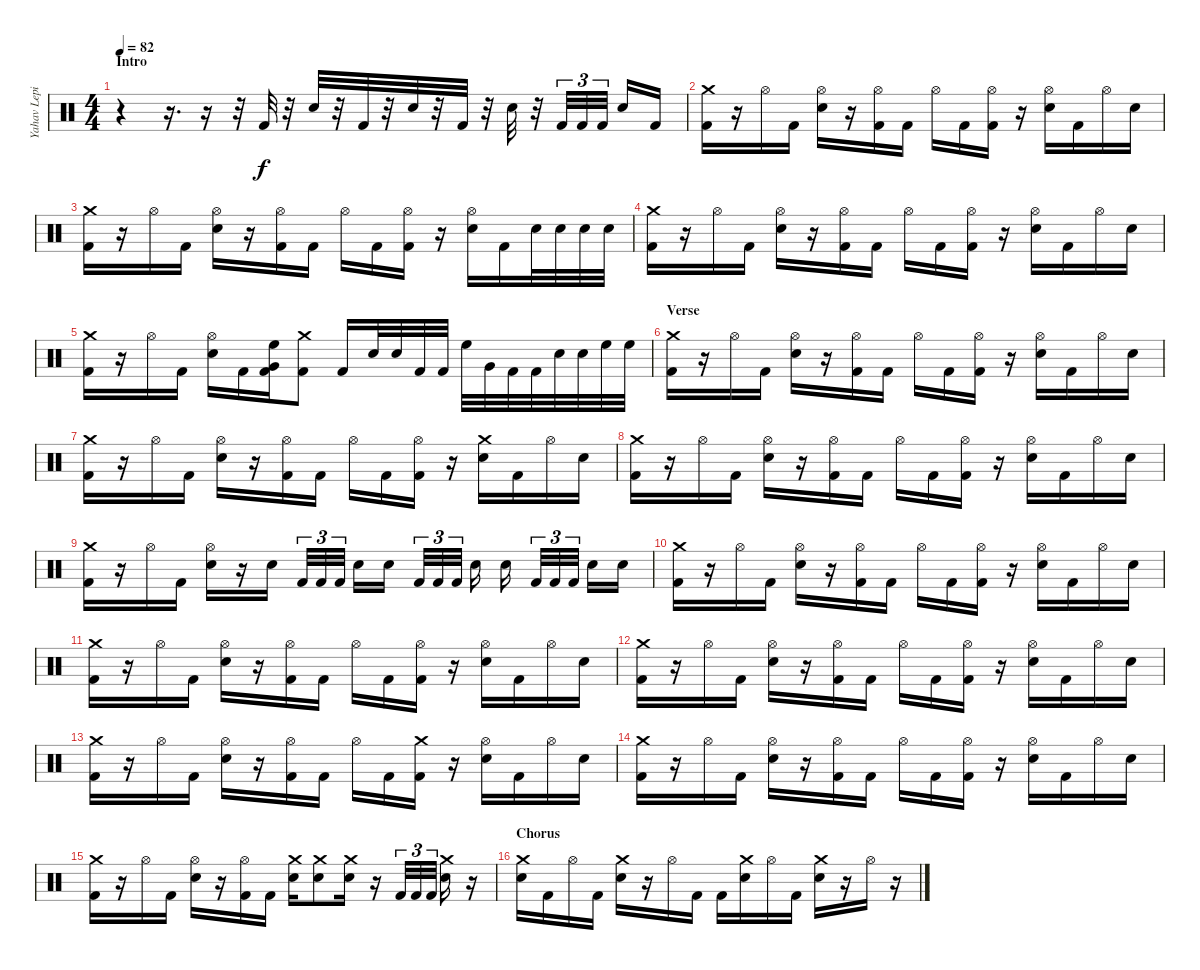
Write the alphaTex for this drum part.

\track ("Yahav Lepinsky" "Yahav Lepi") {instrument percussion}
\staff {score}
\articulation defaults
\ts (4 4)
\section ("" "Intro")
\tempo 82
\clef neutral
\ks c
r.4{dy f} r.16{d} r.16 r.32 "Kick (hit) 2".32 r.32 "Electric Snare (hit)".32 r.32 "Kick (hit) 2".32 r.32 "Electric Snare (hit)".32 r.32 "Kick (hit) 2".32 r.32 "Electric Snare (hit)".32 r.32 "Kick (hit) 2".32{tu (3 2)} "Kick (hit) 2".32{tu (3 2)} "Kick (hit) 2".32{tu (3 2)} "Electric Snare (hit)".16 "Kick (hit) 2".16 |
("Crash medium (hit)" "Kick (hit) 2").16 r.16 "Hi-Hat (open)".16 "Kick (hit) 2".16 ("Hi-Hat (open)" "Electric Snare (hit)").16 r.16 ("Hi-Hat (open)" "Kick (hit) 2").16 "Kick (hit) 2".16 "Hi-Hat (open)".16 "Kick (hit) 2".16 ("Hi-Hat (open)" "Kick (hit) 2").16 r.16 ("Hi-Hat (open)" "Electric Snare (hit)").16 "Kick (hit) 2".16 "Hi-Hat (open)".16 "Electric Snare (hit)".16 |
("Crash medium (hit)" "Kick (hit) 2").16 r.16 "Hi-Hat (open)".16 "Kick (hit) 2".16 ("Hi-Hat (open)" "Electric Snare (hit)").16 r.16 ("Hi-Hat (open)" "Kick (hit) 2").16 "Kick (hit) 2".16 "Hi-Hat (open)".16 "Kick (hit) 2".16 ("Hi-Hat (open)" "Kick (hit) 2").16 r.16 ("Hi-Hat (open)" "Electric Snare (hit)").16 "Kick (hit) 2".16 "Electric Snare (hit)".32 "Electric Snare (hit)".32 "Electric Snare (hit)".32 "Electric Snare (hit)".32 |
("Crash medium (hit)" "Kick (hit) 2").16 r.16 "Hi-Hat (open)".16 "Kick (hit) 2".16 ("Hi-Hat (open)" "Electric Snare (hit)").16 r.16 ("Hi-Hat (open)" "Kick (hit) 2").16 "Kick (hit) 2".16 "Hi-Hat (open)".16 "Kick (hit) 2".16 ("Hi-Hat (open)" "Kick (hit) 2").16 r.16 ("Hi-Hat (open)" "Electric Snare (hit)").16 "Kick (hit) 2".16 "Hi-Hat (open)".16 "Electric Snare (hit)".16 |
("Crash medium (hit)" "Kick (hit) 2").16 r.16 "Hi-Hat (open)".16 "Kick (hit) 2".16 ("Hi-Hat (open)" "Electric Snare (hit)").16 "Kick (hit) 2".16 ("High Floor Tom (hit)" "Very Low Tom (hit)" "Kick (hit) 2").16 ("Crash medium (hit)" "Kick (hit) 2").8 "Kick (hit) 2".16 "Electric Snare (hit)".32 "Electric Snare (hit)".32 "Kick (hit) 2".32 "Kick (hit) 2".32 "High Floor Tom (hit)".32 "Very Low Tom (hit)".32 "Kick (hit) 2".32 "Kick (hit) 2".32 "Electric Snare (hit)".32 "Electric Snare (hit)".32 "High Floor Tom (hit)".32 "High Floor Tom (hit)".32 |
\section ("" "Verse")
("Crash medium (hit)" "Kick (hit) 2").16 r.16 "Hi-Hat (open)".16 "Kick (hit) 2".16 ("Hi-Hat (open)" "Electric Snare (hit)").16 r.16 ("Hi-Hat (open)" "Kick (hit) 2").16 "Kick (hit) 2".16 "Hi-Hat (open)".16 "Kick (hit) 2".16 ("Hi-Hat (open)" "Kick (hit) 2").16 r.16 ("Hi-Hat (open)" "Electric Snare (hit)").16 "Kick (hit) 2".16 "Hi-Hat (open)".16 "Electric Snare (hit)".16 |
("Crash medium (hit)" "Kick (hit) 2").16 r.16 "Hi-Hat (open)".16 "Kick (hit) 2".16 ("Hi-Hat (open)" "Electric Snare (hit)").16 r.16 ("Hi-Hat (open)" "Kick (hit) 2").16 "Kick (hit) 2".16 "Hi-Hat (open)".16 "Kick (hit) 2".16 ("Hi-Hat (open)" "Kick (hit) 2").16 r.16 ("Crash medium (hit)" "Electric Snare (hit)").16 "Kick (hit) 2".16 "Hi-Hat (open)".16 "Electric Snare (hit)".16 |
("Crash medium (hit)" "Kick (hit) 2").16 r.16 "Hi-Hat (open)".16 "Kick (hit) 2".16 ("Hi-Hat (open)" "Electric Snare (hit)").16 r.16 ("Hi-Hat (open)" "Kick (hit) 2").16 "Kick (hit) 2".16 "Hi-Hat (open)".16 "Kick (hit) 2".16 ("Hi-Hat (open)" "Kick (hit) 2").16 r.16 ("Hi-Hat (open)" "Electric Snare (hit)").16 "Kick (hit) 2".16 "Hi-Hat (open)".16 "Electric Snare (hit)".16 |
("Crash medium (hit)" "Kick (hit) 2").16 r.16 "Hi-Hat (open)".16 "Kick (hit) 2".16 ("Hi-Hat (open)" "Electric Snare (hit)").16 r.16 "Electric Snare (hit)".16 "Kick (hit) 2".32{tu (3 2)} "Kick (hit) 2".32{tu (3 2)} "Kick (hit) 2".32{tu (3 2)} "Electric Snare (hit)".16 "Electric Snare (hit)".16 "Kick (hit) 2".32{tu (3 2)} "Kick (hit) 2".32{tu (3 2)} "Kick (hit) 2".32{tu (3 2)} "Electric Snare (hit)".16 "Electric Snare (hit)".16 "Kick (hit) 2".32{tu (3 2)} "Kick (hit) 2".32{tu (3 2)} "Kick (hit) 2".32{tu (3 2)} "Electric Snare (hit)".16 "Electric Snare (hit)".16 |
("Crash medium (hit)" "Kick (hit) 2").16 r.16 "Hi-Hat (open)".16 "Kick (hit) 2".16 ("Hi-Hat (open)" "Electric Snare (hit)").16 r.16 ("Hi-Hat (open)" "Kick (hit) 2").16 "Kick (hit) 2".16 "Hi-Hat (open)".16 "Kick (hit) 2".16 ("Hi-Hat (open)" "Kick (hit) 2").16 r.16 ("Hi-Hat (open)" "Electric Snare (hit)").16 "Kick (hit) 2".16 "Hi-Hat (open)".16 "Electric Snare (hit)".16 |
("Crash medium (hit)" "Kick (hit) 2").16 r.16 "Hi-Hat (open)".16 "Kick (hit) 2".16 ("Hi-Hat (open)" "Electric Snare (hit)").16 r.16 ("Hi-Hat (open)" "Kick (hit) 2").16 "Kick (hit) 2".16 "Hi-Hat (open)".16 "Kick (hit) 2".16 ("Hi-Hat (open)" "Kick (hit) 2").16 r.16 ("Hi-Hat (open)" "Electric Snare (hit)").16 "Kick (hit) 2".16 "Hi-Hat (open)".16 "Electric Snare (hit)".16 |
("Crash medium (hit)" "Kick (hit) 2").16 r.16 "Hi-Hat (open)".16 "Kick (hit) 2".16 ("Hi-Hat (open)" "Electric Snare (hit)").16 r.16 ("Hi-Hat (open)" "Kick (hit) 2").16 "Kick (hit) 2".16 "Hi-Hat (open)".16 "Kick (hit) 2".16 ("Hi-Hat (open)" "Kick (hit) 2").16 r.16 ("Hi-Hat (open)" "Electric Snare (hit)").16 "Kick (hit) 2".16 "Hi-Hat (open)".16 "Electric Snare (hit)".16 |
("Crash medium (hit)" "Kick (hit) 2").16 r.16 "Hi-Hat (open)".16 "Kick (hit) 2".16 ("Hi-Hat (open)" "Electric Snare (hit)").16 r.16 ("Hi-Hat (open)" "Kick (hit) 2").16 "Kick (hit) 2".16 "Hi-Hat (open)".16 "Kick (hit) 2".16 ("Crash medium (hit)" "Kick (hit) 2").16 r.16 ("Hi-Hat (open)" "Electric Snare (hit)").16 "Kick (hit) 2".16 "Hi-Hat (open)".16 "Electric Snare (hit)".16 |
("Crash medium (hit)" "Kick (hit) 2").16 r.16 "Hi-Hat (open)".16 "Kick (hit) 2".16 ("Hi-Hat (open)" "Electric Snare (hit)").16 r.16 ("Hi-Hat (open)" "Kick (hit) 2").16 "Kick (hit) 2".16 "Hi-Hat (open)".16 "Kick (hit) 2".16 ("Hi-Hat (open)" "Kick (hit) 2").16 r.16 ("Hi-Hat (open)" "Electric Snare (hit)").16 "Kick (hit) 2".16 "Hi-Hat (open)".16 "Electric Snare (hit)".16 |
("Crash medium (hit)" "Kick (hit) 2").16 r.16 "Hi-Hat (open)".16 "Kick (hit) 2".16 ("Hi-Hat (open)" "Electric Snare (hit)").16 r.16 ("Hi-Hat (open)" "Kick (hit) 2").16 "Kick (hit) 2".16 ("Crash medium (hit)" "Electric Snare (hit)").16 ("Crash medium (hit)" "Electric Snare (hit)").8 ("Crash medium (hit)" "Electric Snare (hit)").16 r.16 "Kick (hit) 2".32{tu (3 2)} "Kick (hit) 2".32{tu (3 2)} "Kick (hit) 2".32{tu (3 2)} ("Crash medium (hit)" "Electric Snare (hit)").16 r.16 |
\section ("" "Chorus")
("Crash medium (hit)" "Electric Snare (hit)").16 "Kick (hit) 2".16 "Hi-Hat (open)".16 "Kick (hit) 2".16 ("Crash medium (hit)" "Electric Snare (hit)").16 r.16 "Hi-Hat (open)".16 "Kick (hit) 2".16 "Kick (hit) 2".16 ("Crash medium (hit)" "Electric Snare (hit)").16 "Hi-Hat (open)".16 "Kick (hit) 2".16 ("Crash medium (hit)" "Electric Snare (hit)").16 r.16 "Hi-Hat (open)".16 r.16
